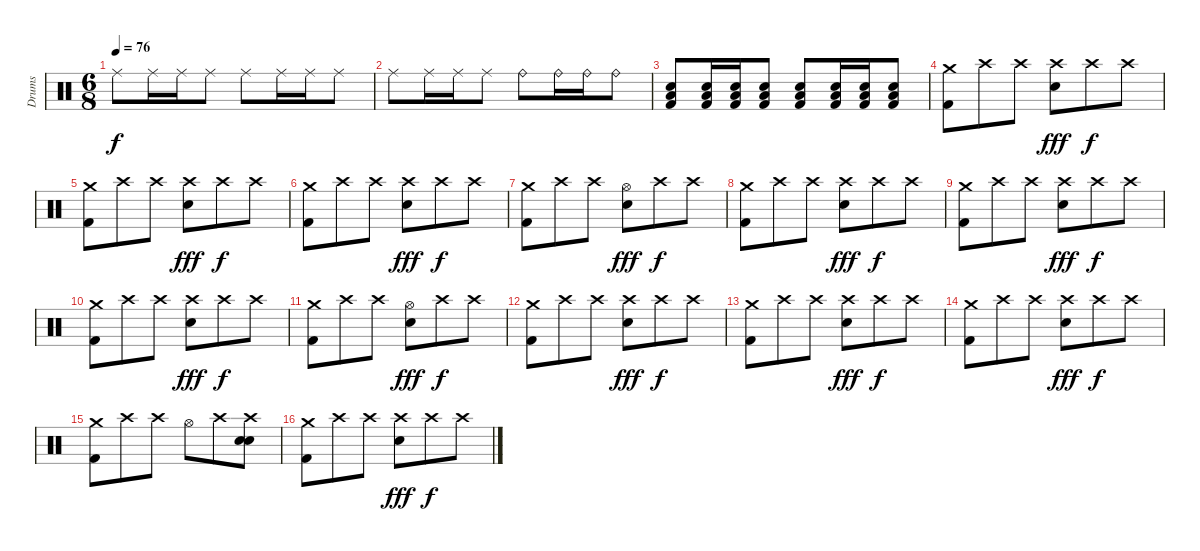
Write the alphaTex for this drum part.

\track ("Drums" "Drums") {instrument percussion}
\staff {score}
\articulation defaults
\ts (6 8)
\tempo 76
\clef neutral
\ks c "Ride (middle)".8{dy f} "Ride (middle)".16 "Ride (middle)".16 "Ride (middle)".8 "Ride (middle)".8 "Ride (middle)".16 "Ride (middle)".16 "Ride (middle)".8
|
"Ride (middle)".8 "Ride (middle)".16 "Ride (middle)".16 "Ride (middle)".8 "Ride (bell)".8 "Ride (bell)".16 "Ride (bell)".16 "Ride (bell)".8 |
("Low Tom (hit)" "Snare (hit) 2" "Kick (hit) 2").8 ("Low Tom (hit)" "Snare (hit) 2" "Kick (hit) 2").16 ("Low Tom (hit)" "Snare (hit) 2" "Kick (hit) 2").16 ("Low Tom (hit)" "Snare (hit) 2" "Kick (hit) 2").8 ("Low Tom (hit)" "Snare (hit) 2" "Kick (hit) 2").8 ("Low Tom (hit)" "Snare (hit) 2" "Kick (hit) 2").16 ("Low Tom (hit)" "Snare (hit) 2" "Kick (hit) 2").16 ("Low Tom (hit)" "Snare (hit) 2" "Kick (hit) 2").8 |
("Crash medium (hit)" "Kick (hit) 2").8 "Crash high (hit)".8 "Crash high (hit)".8 ("Crash high (hit)" "Snare (hit) 2").8{dy fff} "Crash high (hit)".8{dy f} "Crash high (hit)".8 |
("Crash medium (hit)" "Kick (hit) 2").8 "Crash high (hit)".8 "Crash high (hit)".8 ("Crash high (hit)" "Snare (hit) 2").8{dy fff} "Crash high (hit)".8{dy f} "Crash high (hit)".8 |
("Crash medium (hit)" "Kick (hit) 2").8 "Crash high (hit)".8 "Crash high (hit)".8 ("Crash high (hit)" "Snare (hit) 2").8{dy fff} "Crash high (hit)".8{dy f} "Crash high (hit)".8 |
("Crash medium (hit)" "Kick (hit) 2").8 "Crash high (hit)".8 "Crash high (hit)".8 ("Hi-Hat (open)" "Snare (hit) 2").8{dy fff} "Crash high (hit)".8{dy f} "Crash high (hit)".8 |
("Crash medium (hit)" "Kick (hit) 2").8 "Crash high (hit)".8 "Crash high (hit)".8 ("Crash high (hit)" "Snare (hit) 2").8{dy fff} "Crash high (hit)".8{dy f} "Crash high (hit)".8 |
("Crash medium (hit)" "Kick (hit) 2").8 "Crash high (hit)".8 "Crash high (hit)".8 ("Crash high (hit)" "Snare (hit) 2").8{dy fff} "Crash high (hit)".8{dy f} "Crash high (hit)".8 |
("Crash medium (hit)" "Kick (hit) 2").8 "Crash high (hit)".8 "Crash high (hit)".8 ("Crash high (hit)" "Snare (hit) 2").8{dy fff} "Crash high (hit)".8{dy f} "Crash high (hit)".8 |
("Crash medium (hit)" "Kick (hit) 2").8 "Crash high (hit)".8 "Crash high (hit)".8 ("Hi-Hat (open)" "Snare (hit) 2").8{dy fff} "Crash high (hit)".8{dy f} "Crash high (hit)".8 |
("Crash medium (hit)" "Kick (hit) 2").8 "Crash high (hit)".8 "Crash high (hit)".8 ("Crash high (hit)" "Snare (hit) 2").8{dy fff} "Crash high (hit)".8{dy f} "Crash high (hit)".8 |
("Crash medium (hit)" "Kick (hit) 2").8 "Crash high (hit)".8 "Crash high (hit)".8 ("Crash high (hit)" "Snare (hit) 2").8{dy fff} "Crash high (hit)".8{dy f} "Crash high (hit)".8 |
("Crash medium (hit)" "Kick (hit) 2").8 "Crash high (hit)".8 "Crash high (hit)".8 ("Crash high (hit)" "Snare (hit) 2").8{dy fff} "Crash high (hit)".8{dy f} "Crash high (hit)".8 |
("Crash medium (hit)" "Kick (hit) 2").8 "Crash high (hit)".8 "Crash high (hit)".8 "Hi-Hat (open)".8 "Crash high (hit)".8 ("Crash high (hit)" "Snare (hit) 2" "Snare (hit) 2").8 |
("Crash medium (hit)" "Kick (hit) 2").8 "Crash high (hit)".8 "Crash high (hit)".8 ("Crash high (hit)" "Snare (hit) 2").8{dy fff} "Crash high (hit)".8{dy f} "Crash high (hit)".8
